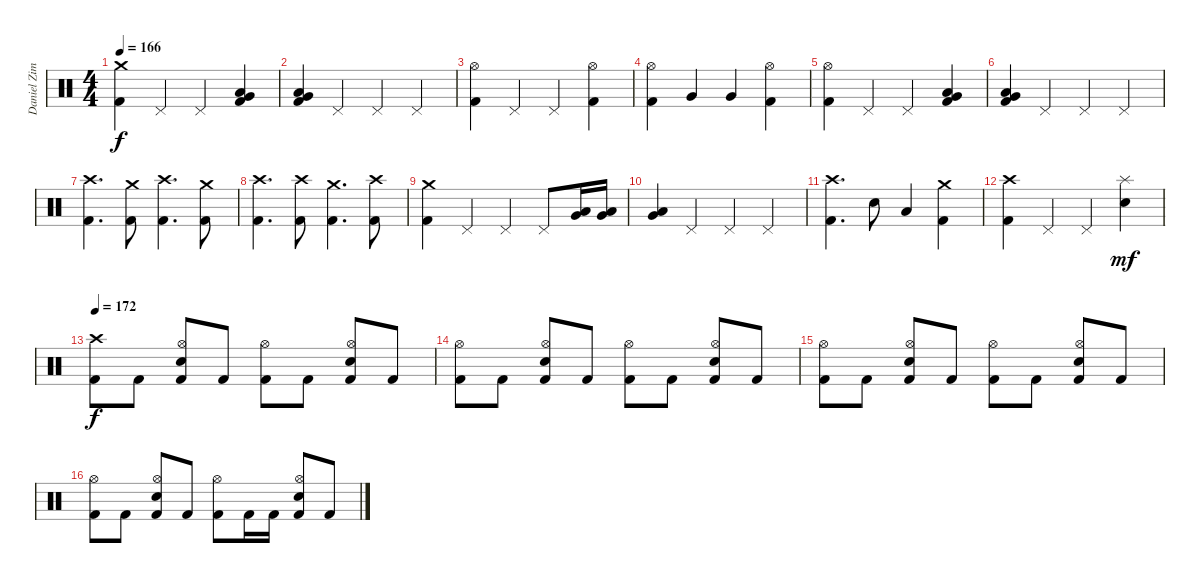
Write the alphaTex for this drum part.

\track ("Daniel Zimmermann - Drums" "Daniel Zim") {instrument percussion}
\staff {score}
\articulation defaults
\ts (4 4)
\tempo 166
\clef neutral
\ks c
("Kick (hit) 2" "Crash medium (hit)").4{dy f} "Pedal Hi-Hat (hit)".4 "Pedal Hi-Hat (hit)".4 ("Kick (hit) 2" "Low Tom (hit)" "Very Low Tom (hit)").4 |
("Kick (hit) 2" "Low Tom (hit)" "Very Low Tom (hit)").4 "Pedal Hi-Hat (hit)".4 "Pedal Hi-Hat (hit)".4 "Pedal Hi-Hat (hit)".4 |
("Kick (hit) 2" "Hi-Hat (open)").4 "Pedal Hi-Hat (hit)".4 "Pedal Hi-Hat (hit)".4 ("Kick (hit) 2" "Hi-Hat (open)").4 |
("Kick (hit) 2" "Hi-Hat (open)").4 "Very Low Tom (hit)".4 "Very Low Tom (hit)".4 ("Kick (hit) 2" "Hi-Hat (open)").4 |
("Kick (hit) 2" "Hi-Hat (open)").4 "Pedal Hi-Hat (hit)".4 "Pedal Hi-Hat (hit)".4 ("Kick (hit) 2" "Low Tom (hit)" "Very Low Tom (hit)").4 |
("Kick (hit) 2" "Low Tom (hit)" "Very Low Tom (hit)").4 "Pedal Hi-Hat (hit)".4 "Pedal Hi-Hat (hit)".4 "Pedal Hi-Hat (hit)".4 |
("Kick (hit) 2" "Crash high (hit)").4{d} ("Kick (hit) 2" "Crash medium (hit)").8 ("Kick (hit) 2" "Crash high (hit)").4{d} ("Kick (hit) 2" "Crash medium (hit)").8 |
("Kick (hit) 2" "Crash high (hit)").4{d} ("Kick (hit) 2" "Crash high (hit)").8 ("Kick (hit) 2" "Crash medium (hit)").4{d} ("Kick (hit) 2" "Crash high (hit)").8 |
("Kick (hit) 2" "Crash medium (hit)").4 "Pedal Hi-Hat (hit)".4 "Pedal Hi-Hat (hit)".4 "Pedal Hi-Hat (hit)".8 ("Low Tom (hit)" "Very Low Tom (hit)").16 ("Low Tom (hit)" "Very Low Tom (hit)").16 |
("Low Tom (hit)" "Very Low Tom (hit)").4 "Pedal Hi-Hat (hit)".4 "Pedal Hi-Hat (hit)".4 "Pedal Hi-Hat (hit)".4 |
("Kick (hit) 2" "Crash high (hit)").4{d} "Electric Snare (hit)".8 "Low Tom (hit)".4 ("Kick (hit) 2" "Crash medium (hit)").4 |
("Kick (hit) 2" "Crash high (hit)").4 "Pedal Hi-Hat (hit)".4 "Pedal Hi-Hat (hit)".4 ("Electric Snare (hit)" "Splash (hit)").4{dy mf} |
\tempo 172
("Kick (hit) 2" "Crash high (hit)").8{dy f} "Kick (hit) 2".8 ("Kick (hit) 2" "Electric Snare (hit)" "Hi-Hat (open)").8 "Kick (hit) 2".8 ("Kick (hit) 2" "Hi-Hat (open)").8 "Kick (hit) 2".8 ("Kick (hit) 2" "Electric Snare (hit)" "Hi-Hat (open)").8 "Kick (hit) 2".8 |
("Kick (hit) 2" "Hi-Hat (open)").8 "Kick (hit) 2".8 ("Kick (hit) 2" "Electric Snare (hit)" "Hi-Hat (open)").8 "Kick (hit) 2".8 ("Kick (hit) 2" "Hi-Hat (open)").8 "Kick (hit) 2".8 ("Kick (hit) 2" "Electric Snare (hit)" "Hi-Hat (open)").8 "Kick (hit) 2".8 |
("Kick (hit) 2" "Hi-Hat (open)").8 "Kick (hit) 2".8 ("Kick (hit) 2" "Electric Snare (hit)" "Hi-Hat (open)").8 "Kick (hit) 2".8 ("Kick (hit) 2" "Hi-Hat (open)").8 "Kick (hit) 2".8 ("Kick (hit) 2" "Electric Snare (hit)" "Hi-Hat (open)").8 "Kick (hit) 2".8 |
("Kick (hit) 2" "Hi-Hat (open)").8 "Kick (hit) 2".8 ("Kick (hit) 2" "Electric Snare (hit)" "Hi-Hat (open)").8 "Kick (hit) 2".8 ("Kick (hit) 2" "Hi-Hat (open)").8 "Kick (hit) 2".16 "Kick (hit) 2".16 ("Kick (hit) 2" "Electric Snare (hit)" "Hi-Hat (open)").8 "Kick (hit) 2".8
